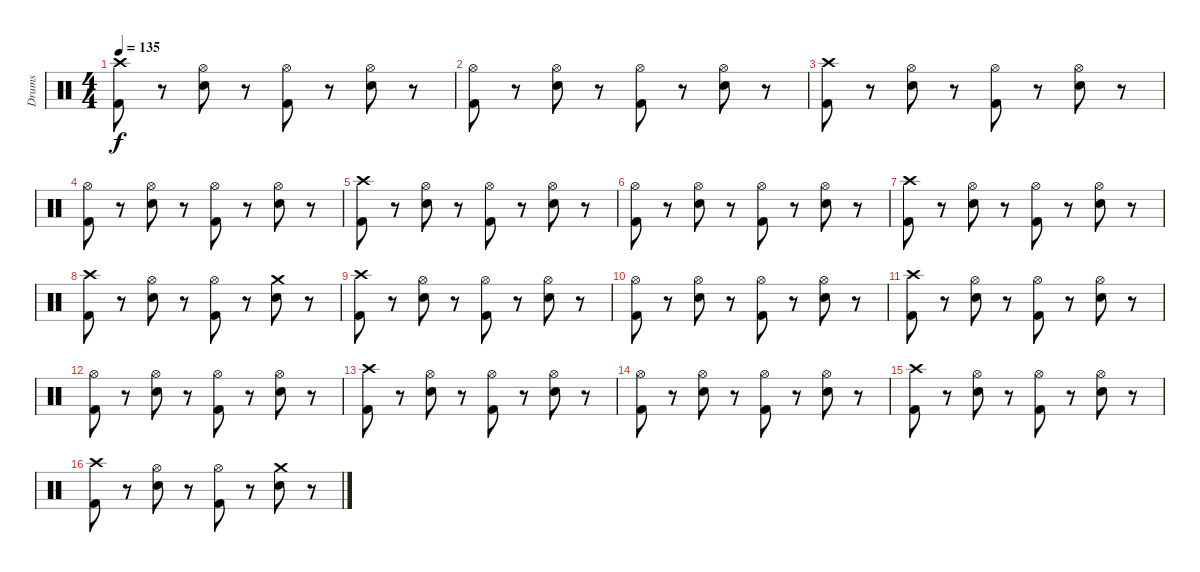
\track ("Drums" "Drums") {instrument percussion}
\staff {score}
\articulation defaults
\ts (4 4)
\tempo 135
\clef neutral
\ks c
("Crash high (hit)" "Kick (hit) 2").8{dy f} r.8 ("Hi-Hat (open)" "Electric Snare (hit)").8 r.8 ("Hi-Hat (open)" "Kick (hit) 2").8 r.8 ("Hi-Hat (open)" "Electric Snare (hit)").8 r.8 |
("Hi-Hat (open)" "Kick (hit) 2").8 r.8 ("Hi-Hat (open)" "Electric Snare (hit)").8 r.8 ("Hi-Hat (open)" "Kick (hit) 2").8 r.8 ("Hi-Hat (open)" "Electric Snare (hit)").8 r.8 |
("Crash high (hit)" "Kick (hit) 2").8 r.8 ("Hi-Hat (open)" "Electric Snare (hit)").8 r.8 ("Hi-Hat (open)" "Kick (hit) 2").8 r.8 ("Hi-Hat (open)" "Electric Snare (hit)").8 r.8 |
("Hi-Hat (open)" "Kick (hit) 2").8 r.8 ("Hi-Hat (open)" "Electric Snare (hit)").8 r.8 ("Hi-Hat (open)" "Kick (hit) 2").8 r.8 ("Hi-Hat (open)" "Electric Snare (hit)").8 r.8 |
("Crash high (hit)" "Kick (hit) 2").8 r.8 ("Hi-Hat (open)" "Electric Snare (hit)").8 r.8 ("Hi-Hat (open)" "Kick (hit) 2").8 r.8 ("Hi-Hat (open)" "Electric Snare (hit)").8 r.8 |
("Hi-Hat (open)" "Kick (hit) 2").8 r.8 ("Hi-Hat (open)" "Electric Snare (hit)").8 r.8 ("Hi-Hat (open)" "Kick (hit) 2").8 r.8 ("Hi-Hat (open)" "Electric Snare (hit)").8 r.8 |
("Crash high (hit)" "Kick (hit) 2").8 r.8 ("Hi-Hat (open)" "Electric Snare (hit)").8 r.8 ("Hi-Hat (open)" "Kick (hit) 2").8 r.8 ("Hi-Hat (open)" "Electric Snare (hit)").8 r.8 |
("Crash high (hit)" "Kick (hit) 2").8 r.8 ("Hi-Hat (open)" "Electric Snare (hit)").8 r.8 ("Hi-Hat (open)" "Kick (hit) 2").8 r.8 ("Crash medium (hit)" "Electric Snare (hit)").8 r.8 |
("Crash high (hit)" "Kick (hit) 2").8 r.8 ("Hi-Hat (open)" "Electric Snare (hit)").8 r.8 ("Hi-Hat (open)" "Kick (hit) 2").8 r.8 ("Hi-Hat (open)" "Electric Snare (hit)").8 r.8 |
("Hi-Hat (open)" "Kick (hit) 2").8 r.8 ("Hi-Hat (open)" "Electric Snare (hit)").8 r.8 ("Hi-Hat (open)" "Kick (hit) 2").8 r.8 ("Hi-Hat (open)" "Electric Snare (hit)").8 r.8 |
("Crash high (hit)" "Kick (hit) 2").8 r.8 ("Hi-Hat (open)" "Electric Snare (hit)").8 r.8 ("Hi-Hat (open)" "Kick (hit) 2").8 r.8 ("Hi-Hat (open)" "Electric Snare (hit)").8 r.8 |
("Hi-Hat (open)" "Kick (hit) 2").8 r.8 ("Hi-Hat (open)" "Electric Snare (hit)").8 r.8 ("Hi-Hat (open)" "Kick (hit) 2").8 r.8 ("Hi-Hat (open)" "Electric Snare (hit)").8 r.8 |
("Crash high (hit)" "Kick (hit) 2").8 r.8 ("Hi-Hat (open)" "Electric Snare (hit)").8 r.8 ("Hi-Hat (open)" "Kick (hit) 2").8 r.8 ("Hi-Hat (open)" "Electric Snare (hit)").8 r.8 |
("Hi-Hat (open)" "Kick (hit) 2").8 r.8 ("Hi-Hat (open)" "Electric Snare (hit)").8 r.8 ("Hi-Hat (open)" "Kick (hit) 2").8 r.8 ("Hi-Hat (open)" "Electric Snare (hit)").8 r.8 |
("Crash high (hit)" "Kick (hit) 2").8 r.8 ("Hi-Hat (open)" "Electric Snare (hit)").8 r.8 ("Hi-Hat (open)" "Kick (hit) 2").8 r.8 ("Hi-Hat (open)" "Electric Snare (hit)").8 r.8 |
("Crash high (hit)" "Kick (hit) 2").8 r.8 ("Hi-Hat (open)" "Electric Snare (hit)").8 r.8 ("Hi-Hat (open)" "Kick (hit) 2").8 r.8 ("Crash medium (hit)" "Electric Snare (hit)").8 r.8
